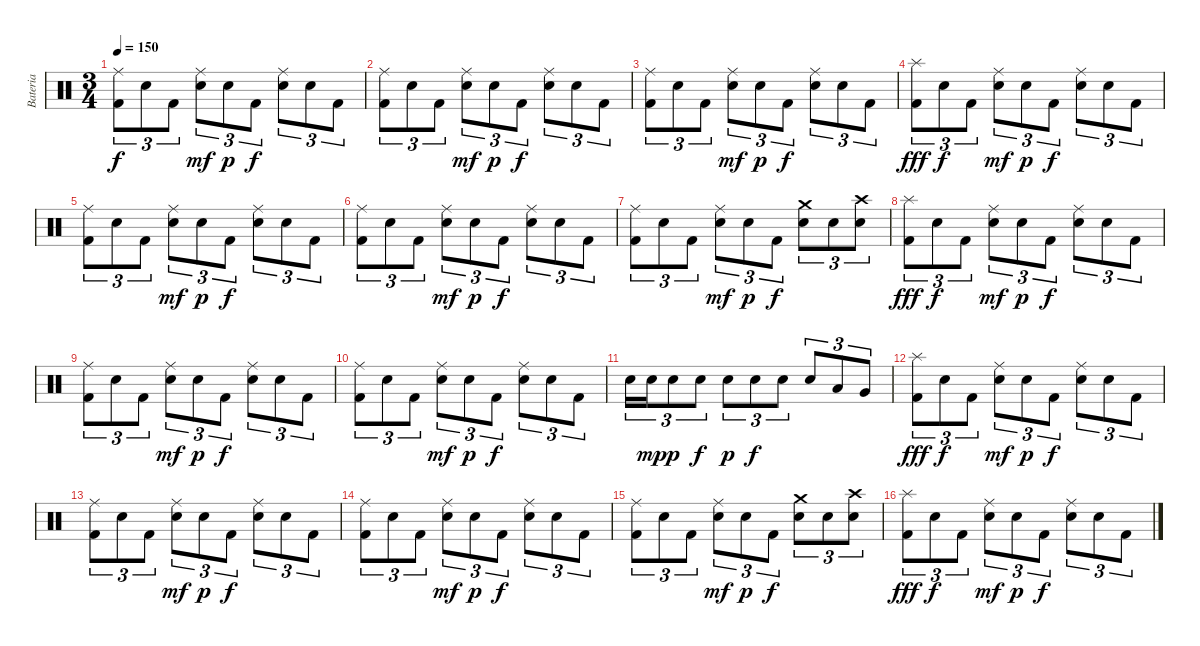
\track ("Bateria" "Bateria") {instrument percussion}
\staff {score}
\articulation defaults
\ts (3 4)
\tempo 150
\clef neutral
\ks c
("Ride (middle)" "Kick (hit) 2").8{tu (3 2) dy f} "Snare (hit)".8{tu (3 2)} "Kick (hit) 2".8{tu (3 2)} ("Ride (middle)" "Electric Snare (hit)").8{tu (3 2) dy mf} "Electric Snare (hit)".8{tu (3 2) dy p} "Kick (hit) 2".8{tu (3 2) dy f} ("Ride (middle)" "Electric Snare (hit)").8{tu (3 2)} "Snare (hit)".8{tu (3 2)} "Kick (hit) 2".8{tu (3 2)} |
("Ride (middle)" "Kick (hit) 2").8{tu (3 2)} "Snare (hit)".8{tu (3 2)} "Kick (hit) 2".8{tu (3 2)} ("Ride (middle)" "Electric Snare (hit)").8{tu (3 2) dy mf} "Electric Snare (hit)".8{tu (3 2) dy p} "Kick (hit) 2".8{tu (3 2) dy f} ("Ride (middle)" "Electric Snare (hit)").8{tu (3 2)} "Snare (hit)".8{tu (3 2)} "Kick (hit) 2".8{tu (3 2)} |
("Ride (middle)" "Kick (hit) 2").8{tu (3 2)} "Snare (hit)".8{tu (3 2)} "Kick (hit) 2".8{tu (3 2)} ("Ride (middle)" "Electric Snare (hit)").8{tu (3 2) dy mf} "Electric Snare (hit)".8{tu (3 2) dy p} "Kick (hit) 2".8{tu (3 2) dy f} ("Ride (middle)" "Electric Snare (hit)").8{tu (3 2)} "Snare (hit)".8{tu (3 2)} "Kick (hit) 2".8{tu (3 2)} |
("Splash (hit)" "Kick (hit) 2").8{tu (3 2) dy fff} "Snare (hit)".8{tu (3 2) dy f} "Kick (hit) 2".8{tu (3 2)} ("Ride (middle)" "Electric Snare (hit)").8{tu (3 2) dy mf} "Electric Snare (hit)".8{tu (3 2) dy p} "Kick (hit) 2".8{tu (3 2) dy f} ("Ride (middle)" "Electric Snare (hit)").8{tu (3 2)} "Snare (hit)".8{tu (3 2)} "Kick (hit) 2".8{tu (3 2)} |
("Ride (middle)" "Kick (hit) 2").8{tu (3 2)} "Snare (hit)".8{tu (3 2)} "Kick (hit) 2".8{tu (3 2)} ("Ride (middle)" "Electric Snare (hit)").8{tu (3 2) dy mf} "Electric Snare (hit)".8{tu (3 2) dy p} "Kick (hit) 2".8{tu (3 2) dy f} ("Ride (middle)" "Electric Snare (hit)").8{tu (3 2)} "Snare (hit)".8{tu (3 2)} "Kick (hit) 2".8{tu (3 2)} |
("Ride (middle)" "Kick (hit) 2").8{tu (3 2)} "Snare (hit)".8{tu (3 2)} "Kick (hit) 2".8{tu (3 2)} ("Ride (middle)" "Electric Snare (hit)").8{tu (3 2) dy mf} "Electric Snare (hit)".8{tu (3 2) dy p} "Kick (hit) 2".8{tu (3 2) dy f} ("Ride (middle)" "Electric Snare (hit)").8{tu (3 2)} "Snare (hit)".8{tu (3 2)} "Kick (hit) 2".8{tu (3 2)} |
("Ride (middle)" "Kick (hit) 2").8{tu (3 2)} "Snare (hit)".8{tu (3 2)} "Kick (hit) 2".8{tu (3 2)} ("Ride (middle)" "Electric Snare (hit)").8{tu (3 2) dy mf} "Electric Snare (hit)".8{tu (3 2) dy p} "Kick (hit) 2".8{tu (3 2) dy f} ("Crash medium (hit)" "Electric Snare (hit)").8{tu (3 2)} "Snare (hit)".8{tu (3 2)} ("Crash high (hit)" "Electric Snare (hit)").8{tu (3 2)} |
("Splash (hit)" "Kick (hit) 2").8{tu (3 2) dy fff} "Snare (hit)".8{tu (3 2) dy f} "Kick (hit) 2".8{tu (3 2)} ("Ride (middle)" "Electric Snare (hit)").8{tu (3 2) dy mf} "Electric Snare (hit)".8{tu (3 2) dy p} "Kick (hit) 2".8{tu (3 2) dy f} ("Ride (middle)" "Electric Snare (hit)").8{tu (3 2)} "Snare (hit)".8{tu (3 2)} "Kick (hit) 2".8{tu (3 2)} |
("Ride (middle)" "Kick (hit) 2").8{tu (3 2)} "Snare (hit)".8{tu (3 2)} "Kick (hit) 2".8{tu (3 2)} ("Ride (middle)" "Electric Snare (hit)").8{tu (3 2) dy mf} "Electric Snare (hit)".8{tu (3 2) dy p} "Kick (hit) 2".8{tu (3 2) dy f} ("Ride (middle)" "Electric Snare (hit)").8{tu (3 2)} "Snare (hit)".8{tu (3 2)} "Kick (hit) 2".8{tu (3 2)} |
("Ride (middle)" "Kick (hit) 2").8{tu (3 2)} "Snare (hit)".8{tu (3 2)} "Kick (hit) 2".8{tu (3 2)} ("Ride (middle)" "Electric Snare (hit)").8{tu (3 2) dy mf} "Electric Snare (hit)".8{tu (3 2) dy p} "Kick (hit) 2".8{tu (3 2) dy f} ("Ride (middle)" "Electric Snare (hit)").8{tu (3 2)} "Snare (hit)".8{tu (3 2)} "Kick (hit) 2".8{tu (3 2)} |
"Electric Snare (hit)".16{tu (3 2)} "Electric Snare (hit)".16{tu (3 2) dy mp} "Electric Snare (hit)".8{tu (3 2) dy p} "Electric Snare (hit)".8{tu (3 2) dy f} "Electric Snare (hit)".8{tu (3 2) dy p} "Electric Snare (hit)".8{tu (3 2) dy f} "Electric Snare (hit)".8{tu (3 2)} "Electric Snare (hit)".8{tu (3 2)} "Low Tom (hit)".8{tu (3 2)} "Very Low Tom (hit)".8{tu (3 2)} |
("Splash (hit)" "Kick (hit) 2").8{tu (3 2) dy fff} "Snare (hit)".8{tu (3 2) dy f} "Kick (hit) 2".8{tu (3 2)} ("Ride (middle)" "Electric Snare (hit)").8{tu (3 2) dy mf} "Electric Snare (hit)".8{tu (3 2) dy p} "Kick (hit) 2".8{tu (3 2) dy f} ("Ride (middle)" "Electric Snare (hit)").8{tu (3 2)} "Snare (hit)".8{tu (3 2)} "Kick (hit) 2".8{tu (3 2)} |
("Ride (middle)" "Kick (hit) 2").8{tu (3 2)} "Snare (hit)".8{tu (3 2)} "Kick (hit) 2".8{tu (3 2)} ("Ride (middle)" "Electric Snare (hit)").8{tu (3 2) dy mf} "Electric Snare (hit)".8{tu (3 2) dy p} "Kick (hit) 2".8{tu (3 2) dy f} ("Ride (middle)" "Electric Snare (hit)").8{tu (3 2)} "Snare (hit)".8{tu (3 2)} "Kick (hit) 2".8{tu (3 2)} |
("Ride (middle)" "Kick (hit) 2").8{tu (3 2)} "Snare (hit)".8{tu (3 2)} "Kick (hit) 2".8{tu (3 2)} ("Ride (middle)" "Electric Snare (hit)").8{tu (3 2) dy mf} "Electric Snare (hit)".8{tu (3 2) dy p} "Kick (hit) 2".8{tu (3 2) dy f} ("Ride (middle)" "Electric Snare (hit)").8{tu (3 2)} "Snare (hit)".8{tu (3 2)} "Kick (hit) 2".8{tu (3 2)} |
("Ride (middle)" "Kick (hit) 2").8{tu (3 2)} "Snare (hit)".8{tu (3 2)} "Kick (hit) 2".8{tu (3 2)} ("Ride (middle)" "Electric Snare (hit)").8{tu (3 2) dy mf} "Electric Snare (hit)".8{tu (3 2) dy p} "Kick (hit) 2".8{tu (3 2) dy f} ("Crash medium (hit)" "Electric Snare (hit)").8{tu (3 2)} "Snare (hit)".8{tu (3 2)} ("Crash high (hit)" "Electric Snare (hit)").8{tu (3 2)} |
("Splash (hit)" "Kick (hit) 2").8{tu (3 2) dy fff} "Snare (hit)".8{tu (3 2) dy f} "Kick (hit) 2".8{tu (3 2)} ("Ride (middle)" "Electric Snare (hit)").8{tu (3 2) dy mf} "Electric Snare (hit)".8{tu (3 2) dy p} "Kick (hit) 2".8{tu (3 2) dy f} ("Ride (middle)" "Electric Snare (hit)").8{tu (3 2)} "Snare (hit)".8{tu (3 2)} "Kick (hit) 2".8{tu (3 2)}
